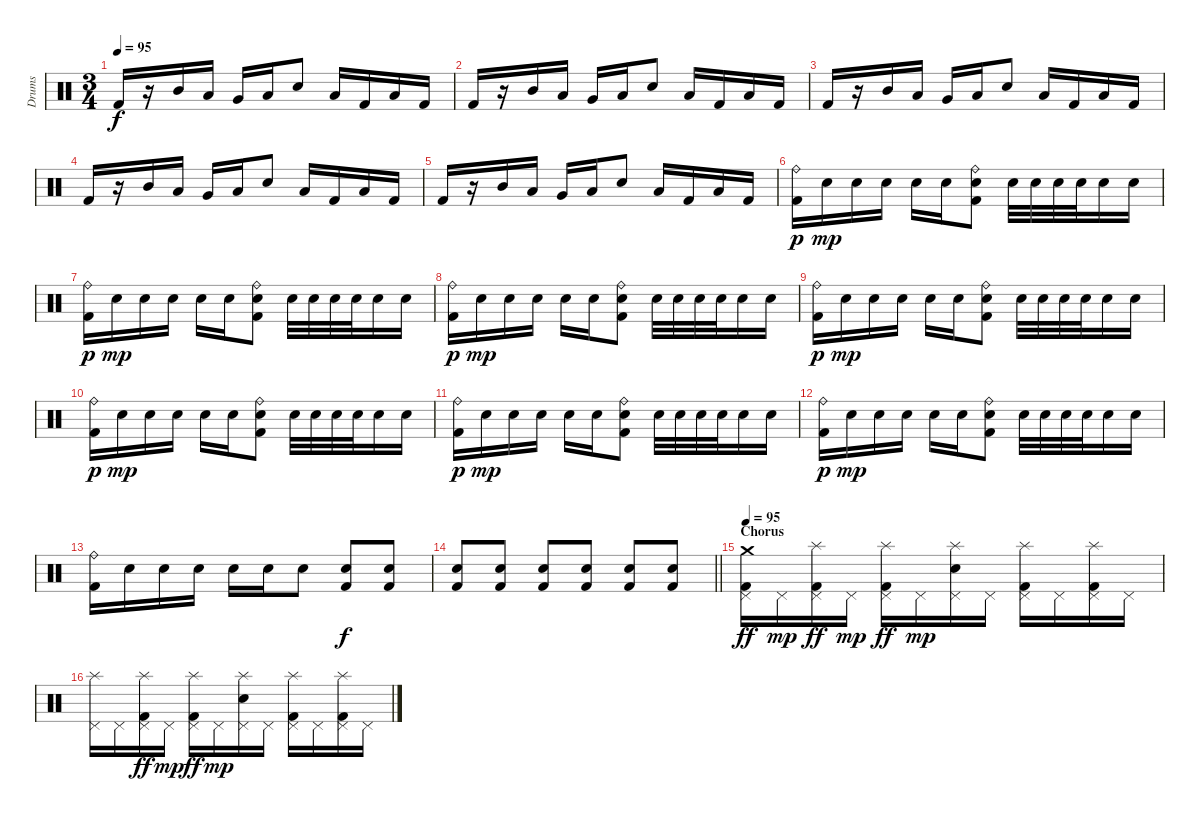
\track ("Drums" "Drums") {instrument percussion}
\staff {score}
\articulation defaults
\ts (3 4)
\tempo 95
\clef neutral
\ks c "Kick (hit) 2".16{dy f}
r.16 "Mid Tom (hit)".16 "Low Tom (hit)".16 "Very Low Tom (hit)".16 "Low Floor Tom (hit)".16 "Electric Snare (hit)".8 "Low Floor Tom (hit)".16 "Kick (hit) 2".16 "Low Floor Tom (hit)".16 "Kick (hit) 2".16 |
"Kick (hit) 2".16 r.16 "Mid Tom (hit)".16 "Low Tom (hit)".16 "Very Low Tom (hit)".16 "Low Floor Tom (hit)".16 "Electric Snare (hit)".8 "Low Floor Tom (hit)".16 "Kick (hit) 2".16 "Low Floor Tom (hit)".16 "Kick (hit) 2".16 |
"Kick (hit) 2".16 r.16 "Mid Tom (hit)".16 "Low Tom (hit)".16 "Very Low Tom (hit)".16 "Low Floor Tom (hit)".16 "Electric Snare (hit)".8 "Low Floor Tom (hit)".16 "Kick (hit) 2".16 "Low Floor Tom (hit)".16 "Kick (hit) 2".16 |
"Kick (hit) 2".16 r.16 "Mid Tom (hit)".16 "Low Tom (hit)".16 "Very Low Tom (hit)".16 "Low Floor Tom (hit)".16 "Electric Snare (hit)".8 "Low Floor Tom (hit)".16 "Kick (hit) 2".16 "Low Floor Tom (hit)".16 "Kick (hit) 2".16 |
"Kick (hit) 2".16 r.16 "Mid Tom (hit)".16 "Low Tom (hit)".16 "Very Low Tom (hit)".16 "Low Floor Tom (hit)".16 "Electric Snare (hit)".8 "Low Floor Tom (hit)".16 "Kick (hit) 2".16 "Low Floor Tom (hit)".16 "Kick (hit) 2".16 |
("Ride (bell)" "Kick (hit) 2").16{dy p} "Snare (hit) 2".16{dy mp} "Snare (hit) 2".16 "Snare (hit) 2".16 "Snare (hit) 2".16 "Snare (hit) 2".16 ("Ride (bell)" "Kick (hit) 2" "Electric Snare (hit)").8 "Snare (hit) 2".32 "Snare (hit) 2".32 "Snare (hit) 2".32 "Snare (hit) 2".32 "Snare (hit) 2".16 "Snare (hit) 2".16 |
("Ride (bell)" "Kick (hit) 2").16{dy p} "Snare (hit) 2".16{dy mp} "Snare (hit) 2".16 "Snare (hit) 2".16 "Snare (hit) 2".16 "Snare (hit) 2".16 ("Ride (bell)" "Kick (hit) 2" "Electric Snare (hit)").8 "Snare (hit) 2".32 "Snare (hit) 2".32 "Snare (hit) 2".32 "Snare (hit) 2".32 "Snare (hit) 2".16 "Snare (hit) 2".16 |
("Ride (bell)" "Kick (hit) 2").16{dy p} "Snare (hit) 2".16{dy mp} "Snare (hit) 2".16 "Snare (hit) 2".16 "Snare (hit) 2".16 "Snare (hit) 2".16 ("Ride (bell)" "Kick (hit) 2" "Electric Snare (hit)").8 "Snare (hit) 2".32 "Snare (hit) 2".32 "Snare (hit) 2".32 "Snare (hit) 2".32 "Snare (hit) 2".16 "Snare (hit) 2".16 |
("Ride (bell)" "Kick (hit) 2").16{dy p} "Snare (hit) 2".16{dy mp} "Snare (hit) 2".16 "Snare (hit) 2".16 "Snare (hit) 2".16 "Snare (hit) 2".16 ("Ride (bell)" "Kick (hit) 2" "Electric Snare (hit)").8 "Snare (hit) 2".32 "Snare (hit) 2".32 "Snare (hit) 2".32 "Snare (hit) 2".32 "Snare (hit) 2".16 "Snare (hit) 2".16 |
("Ride (bell)" "Kick (hit) 2").16{dy p} "Snare (hit) 2".16{dy mp} "Snare (hit) 2".16 "Snare (hit) 2".16 "Snare (hit) 2".16 "Snare (hit) 2".16 ("Ride (bell)" "Kick (hit) 2" "Electric Snare (hit)").8 "Snare (hit) 2".32 "Snare (hit) 2".32 "Snare (hit) 2".32 "Snare (hit) 2".32 "Snare (hit) 2".16 "Snare (hit) 2".16 |
("Ride (bell)" "Kick (hit) 2").16{dy p} "Snare (hit) 2".16{dy mp} "Snare (hit) 2".16 "Snare (hit) 2".16 "Snare (hit) 2".16 "Snare (hit) 2".16 ("Ride (bell)" "Kick (hit) 2" "Electric Snare (hit)").8 "Snare (hit) 2".32 "Snare (hit) 2".32 "Snare (hit) 2".32 "Snare (hit) 2".32 "Snare (hit) 2".16 "Snare (hit) 2".16 |
("Ride (bell)" "Kick (hit) 2").16{dy p} "Snare (hit) 2".16{dy mp} "Snare (hit) 2".16 "Snare (hit) 2".16 "Snare (hit) 2".16 "Snare (hit) 2".16 ("Ride (bell)" "Kick (hit) 2" "Electric Snare (hit)").8 "Snare (hit) 2".32 "Snare (hit) 2".32 "Snare (hit) 2".32 "Snare (hit) 2".32 "Snare (hit) 2".16 "Snare (hit) 2".16 |
("Ride (bell)" "Kick (hit) 2").16 "Snare (hit) 2".16 "Snare (hit) 2".16 "Snare (hit) 2".16 "Snare (hit) 2".16 "Snare (hit) 2".16 "Electric Snare (hit)".8 ("Electric Snare (hit)" "Kick (hit) 2").8{dy f} ("Electric Snare (hit)" "Kick (hit) 2").8 |
\barLineRight lightlight
("Electric Snare (hit)" "Kick (hit) 2").8 ("Electric Snare (hit)" "Kick (hit) 2").8 ("Electric Snare (hit)" "Kick (hit) 2").8 ("Electric Snare (hit)" "Kick (hit) 2").8 ("Electric Snare (hit)" "Kick (hit) 2").8 ("Electric Snare (hit)" "Kick (hit) 2").8 |
\section ("" "Chorus")
\tempo 95
("Crash medium (hit)" "Pedal Hi-Hat (hit)" "Kick (hit) 2").16{dy ff} "Pedal Hi-Hat (hit)".16{dy mp} ("Splash (hit)" "Pedal Hi-Hat (hit)" "Kick (hit) 2").16{dy ff} "Pedal Hi-Hat (hit)".16{dy mp} ("Splash (hit)" "Pedal Hi-Hat (hit)" "Kick (hit) 2").16{dy ff} "Pedal Hi-Hat (hit)".16{dy mp} ("Splash (hit)" "Pedal Hi-Hat (hit)" "Electric Snare (hit)").16 "Pedal Hi-Hat (hit)".16 ("Splash (hit)" "Pedal Hi-Hat (hit)" "Kick (hit) 2").16 "Pedal Hi-Hat (hit)".16 ("Splash (hit)" "Pedal Hi-Hat (hit)" "Kick (hit) 2").16 "Pedal Hi-Hat (hit)".16 |
("Splash (hit)" "Pedal Hi-Hat (hit)").16 "Pedal Hi-Hat (hit)".16 ("Splash (hit)" "Pedal Hi-Hat (hit)" "Kick (hit) 2").16{dy ff} "Pedal Hi-Hat (hit)".16{dy mp} ("Splash (hit)" "Pedal Hi-Hat (hit)" "Kick (hit) 2").16{dy ff} "Pedal Hi-Hat (hit)".16{dy mp} ("Splash (hit)" "Pedal Hi-Hat (hit)" "Electric Snare (hit)").16 "Pedal Hi-Hat (hit)".16 ("Splash (hit)" "Pedal Hi-Hat (hit)" "Kick (hit) 2").16 "Pedal Hi-Hat (hit)".16 ("Splash (hit)" "Pedal Hi-Hat (hit)" "Kick (hit) 2").16 "Pedal Hi-Hat (hit)".16
